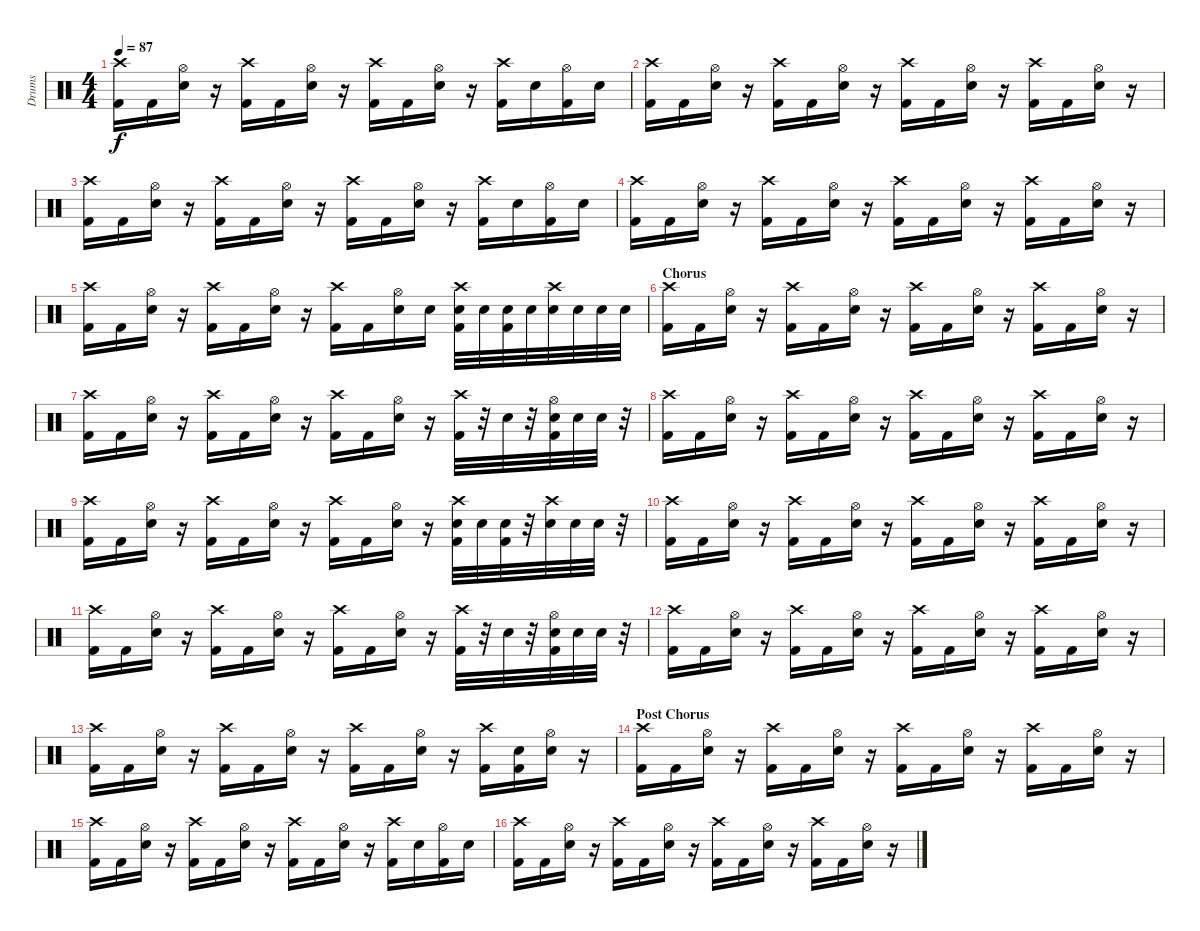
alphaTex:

\track ("Drums" "Drums") {instrument percussion}
\staff {score}
\articulation defaults
\ts (4 4)
\tempo 87
\clef neutral
\ks c
("Crash high (hit)" "Kick (hit) 2").16{dy f} "Kick (hit) 2".16 ("Hi-Hat (open)" "Electric Snare (hit)").16 r.16 ("Crash high (hit)" "Kick (hit) 2").16 "Kick (hit) 2".16 ("Hi-Hat (open)" "Electric Snare (hit)").16 r.16 ("Crash high (hit)" "Kick (hit) 2").16 "Kick (hit) 2".16 ("Hi-Hat (open)" "Electric Snare (hit)").16 r.16 ("Crash high (hit)" "Kick (hit) 2").16 "Electric Snare (hit)".16 ("Hi-Hat (open)" "Kick (hit) 2").16 "Electric Snare (hit)".16 |
("Crash high (hit)" "Kick (hit) 2").16 "Kick (hit) 2".16 ("Hi-Hat (open)" "Electric Snare (hit)").16 r.16 ("Crash high (hit)" "Kick (hit) 2").16 "Kick (hit) 2".16 ("Hi-Hat (open)" "Electric Snare (hit)").16 r.16 ("Crash high (hit)" "Kick (hit) 2").16 "Kick (hit) 2".16 ("Hi-Hat (open)" "Electric Snare (hit)").16 r.16 ("Crash high (hit)" "Kick (hit) 2").16 "Kick (hit) 2".16 ("Hi-Hat (open)" "Electric Snare (hit)").16 r.16 |
("Crash high (hit)" "Kick (hit) 2").16 "Kick (hit) 2".16 ("Hi-Hat (open)" "Electric Snare (hit)").16 r.16 ("Crash high (hit)" "Kick (hit) 2").16 "Kick (hit) 2".16 ("Hi-Hat (open)" "Electric Snare (hit)").16 r.16 ("Crash high (hit)" "Kick (hit) 2").16 "Kick (hit) 2".16 ("Hi-Hat (open)" "Electric Snare (hit)").16 r.16 ("Crash high (hit)" "Kick (hit) 2").16 "Electric Snare (hit)".16 ("Hi-Hat (open)" "Kick (hit) 2").16 "Electric Snare (hit)".16 |
("Crash high (hit)" "Kick (hit) 2").16 "Kick (hit) 2".16 ("Hi-Hat (open)" "Electric Snare (hit)").16 r.16 ("Crash high (hit)" "Kick (hit) 2").16 "Kick (hit) 2".16 ("Hi-Hat (open)" "Electric Snare (hit)").16 r.16 ("Crash high (hit)" "Kick (hit) 2").16 "Kick (hit) 2".16 ("Hi-Hat (open)" "Electric Snare (hit)").16 r.16 ("Crash high (hit)" "Kick (hit) 2").16 "Kick (hit) 2".16 ("Hi-Hat (open)" "Electric Snare (hit)").16 r.16 |
("Crash high (hit)" "Kick (hit) 2").16 "Kick (hit) 2".16 ("Hi-Hat (open)" "Electric Snare (hit)").16 r.16 ("Crash high (hit)" "Kick (hit) 2").16 "Kick (hit) 2".16 ("Hi-Hat (open)" "Electric Snare (hit)").16 r.16 ("Crash high (hit)" "Kick (hit) 2").16 "Kick (hit) 2".16 ("Hi-Hat (open)" "Electric Snare (hit)").16 "Electric Snare (hit)".16 ("Crash high (hit)" "Electric Snare (hit)" "Kick (hit) 2").32 "Electric Snare (hit)".32 ("Electric Snare (hit)" "Kick (hit) 2").32 "Electric Snare (hit)".32 ("Crash high (hit)" "Electric Snare (hit)").32 "Electric Snare (hit)".32 "Electric Snare (hit)".32 "Electric Snare (hit)".32 |
\section ("" "Chorus")
("Crash high (hit)" "Kick (hit) 2").16 "Kick (hit) 2".16 ("Hi-Hat (open)" "Electric Snare (hit)").16 r.16 ("Crash high (hit)" "Kick (hit) 2").16 "Kick (hit) 2".16 ("Hi-Hat (open)" "Electric Snare (hit)").16 r.16 ("Crash high (hit)" "Kick (hit) 2").16 "Kick (hit) 2".16 ("Hi-Hat (open)" "Electric Snare (hit)").16 r.16 ("Crash high (hit)" "Kick (hit) 2").16 "Kick (hit) 2".16 ("Hi-Hat (open)" "Electric Snare (hit)").16 r.16 |
("Crash high (hit)" "Kick (hit) 2").16 "Kick (hit) 2".16 ("Hi-Hat (open)" "Electric Snare (hit)").16 r.16 ("Crash high (hit)" "Kick (hit) 2").16 "Kick (hit) 2".16 ("Hi-Hat (open)" "Electric Snare (hit)").16 r.16 ("Crash high (hit)" "Kick (hit) 2").16 "Kick (hit) 2".16 ("Hi-Hat (open)" "Electric Snare (hit)").16 r.16 ("Crash high (hit)" "Kick (hit) 2").32 r.32 "Electric Snare (hit)".32 r.32 ("Hi-Hat (open)" "Electric Snare (hit)" "Kick (hit) 2").32 "Electric Snare (hit)".32 "Electric Snare (hit)".32 r.32 |
("Crash high (hit)" "Kick (hit) 2").16 "Kick (hit) 2".16 ("Hi-Hat (open)" "Electric Snare (hit)").16 r.16 ("Crash high (hit)" "Kick (hit) 2").16 "Kick (hit) 2".16 ("Hi-Hat (open)" "Electric Snare (hit)").16 r.16 ("Crash high (hit)" "Kick (hit) 2").16 "Kick (hit) 2".16 ("Hi-Hat (open)" "Electric Snare (hit)").16 r.16 ("Crash high (hit)" "Kick (hit) 2").16 "Kick (hit) 2".16 ("Hi-Hat (open)" "Electric Snare (hit)").16 r.16 |
("Crash high (hit)" "Kick (hit) 2").16 "Kick (hit) 2".16 ("Hi-Hat (open)" "Electric Snare (hit)").16 r.16 ("Crash high (hit)" "Kick (hit) 2").16 "Kick (hit) 2".16 ("Hi-Hat (open)" "Electric Snare (hit)").16 r.16 ("Crash high (hit)" "Kick (hit) 2").16 "Kick (hit) 2".16 ("Hi-Hat (open)" "Electric Snare (hit)").16 r.16 ("Crash high (hit)" "Electric Snare (hit)" "Kick (hit) 2").32 "Electric Snare (hit)".32 ("Electric Snare (hit)" "Kick (hit) 2").32 r.32 ("Crash high (hit)" "Electric Snare (hit)").32 "Electric Snare (hit)".32 "Electric Snare (hit)".32 r.32 |
("Crash high (hit)" "Kick (hit) 2").16 "Kick (hit) 2".16 ("Hi-Hat (open)" "Electric Snare (hit)").16 r.16 ("Crash high (hit)" "Kick (hit) 2").16 "Kick (hit) 2".16 ("Hi-Hat (open)" "Electric Snare (hit)").16 r.16 ("Crash high (hit)" "Kick (hit) 2").16 "Kick (hit) 2".16 ("Hi-Hat (open)" "Electric Snare (hit)").16 r.16 ("Crash high (hit)" "Kick (hit) 2").16 "Kick (hit) 2".16 ("Hi-Hat (open)" "Electric Snare (hit)").16 r.16 |
("Crash high (hit)" "Kick (hit) 2").16 "Kick (hit) 2".16 ("Hi-Hat (open)" "Electric Snare (hit)").16 r.16 ("Crash high (hit)" "Kick (hit) 2").16 "Kick (hit) 2".16 ("Hi-Hat (open)" "Electric Snare (hit)").16 r.16 ("Crash high (hit)" "Kick (hit) 2").16 "Kick (hit) 2".16 ("Hi-Hat (open)" "Electric Snare (hit)").16 r.16 ("Crash high (hit)" "Kick (hit) 2").32 r.32 "Electric Snare (hit)".32 r.32 ("Hi-Hat (open)" "Electric Snare (hit)" "Kick (hit) 2").32 "Electric Snare (hit)".32 "Electric Snare (hit)".32 r.32 |
("Crash high (hit)" "Kick (hit) 2").16 "Kick (hit) 2".16 ("Hi-Hat (open)" "Electric Snare (hit)").16 r.16 ("Crash high (hit)" "Kick (hit) 2").16 "Kick (hit) 2".16 ("Hi-Hat (open)" "Electric Snare (hit)").16 r.16 ("Crash high (hit)" "Kick (hit) 2").16 "Kick (hit) 2".16 ("Hi-Hat (open)" "Electric Snare (hit)").16 r.16 ("Crash high (hit)" "Kick (hit) 2").16 "Kick (hit) 2".16 ("Hi-Hat (open)" "Electric Snare (hit)").16 r.16 |
("Crash high (hit)" "Kick (hit) 2").16 "Kick (hit) 2".16 ("Hi-Hat (open)" "Electric Snare (hit)").16 r.16 ("Crash high (hit)" "Kick (hit) 2").16 "Kick (hit) 2".16 ("Hi-Hat (open)" "Electric Snare (hit)").16 r.16 ("Crash high (hit)" "Kick (hit) 2").16 "Kick (hit) 2".16 ("Hi-Hat (open)" "Electric Snare (hit)").16 r.16 ("Crash high (hit)" "Kick (hit) 2").16 ("Electric Snare (hit)" "Kick (hit) 2").16 ("Hi-Hat (open)" "Electric Snare (hit)").16 r.16 |
\section ("" "Post Chorus")
("Crash high (hit)" "Kick (hit) 2").16 "Kick (hit) 2".16 ("Hi-Hat (open)" "Electric Snare (hit)").16 r.16 ("Crash high (hit)" "Kick (hit) 2").16 "Kick (hit) 2".16 ("Hi-Hat (open)" "Electric Snare (hit)").16 r.16 ("Crash high (hit)" "Kick (hit) 2").16 "Kick (hit) 2".16 ("Hi-Hat (open)" "Electric Snare (hit)").16 r.16 ("Crash high (hit)" "Kick (hit) 2").16 "Kick (hit) 2".16 ("Hi-Hat (open)" "Electric Snare (hit)").16 r.16 |
("Crash high (hit)" "Kick (hit) 2").16 "Kick (hit) 2".16 ("Hi-Hat (open)" "Electric Snare (hit)").16 r.16 ("Crash high (hit)" "Kick (hit) 2").16 "Kick (hit) 2".16 ("Hi-Hat (open)" "Electric Snare (hit)").16 r.16 ("Crash high (hit)" "Kick (hit) 2").16 "Kick (hit) 2".16 ("Hi-Hat (open)" "Electric Snare (hit)").16 r.16 ("Crash high (hit)" "Kick (hit) 2").16 "Electric Snare (hit)".16 ("Hi-Hat (open)" "Kick (hit) 2").16 "Electric Snare (hit)".16 |
("Crash high (hit)" "Kick (hit) 2").16 "Kick (hit) 2".16 ("Hi-Hat (open)" "Electric Snare (hit)").16 r.16 ("Crash high (hit)" "Kick (hit) 2").16 "Kick (hit) 2".16 ("Hi-Hat (open)" "Electric Snare (hit)").16 r.16 ("Crash high (hit)" "Kick (hit) 2").16 "Kick (hit) 2".16 ("Hi-Hat (open)" "Electric Snare (hit)").16 r.16 ("Crash high (hit)" "Kick (hit) 2").16 "Kick (hit) 2".16 ("Hi-Hat (open)" "Electric Snare (hit)").16 r.16
